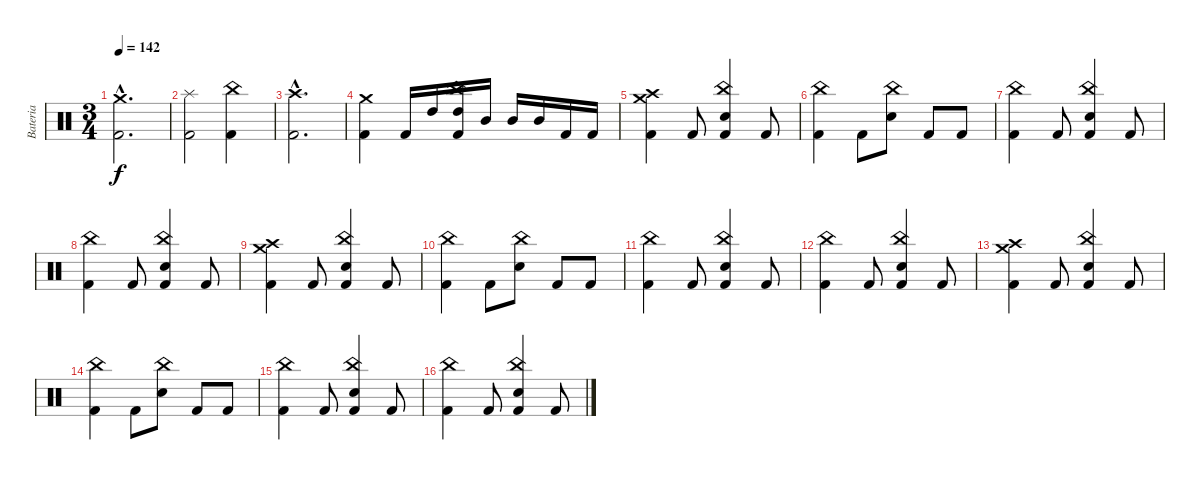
\track ("Bateria" "Bateria") {instrument percussion}
\staff {score}
\articulation defaults
\ts (3 4)
\tempo 142
\clef neutral
\ks c
("Crash medium (hit)"{hac} "Kick (hit) 2"{hac}).2{d dy f} |
("Splash (hit)" "Kick (hit) 2").2 ("China (hit)" "Kick (hit) 2").4 |
("Crash high (hit)"{hac} "Kick (hit) 2"{hac}).2{d} |
("Crash medium (hit)" "Kick (hit) 2").4 "Kick (hit) 2".16 "High Tom (hit)".16 ("China (hit)" "High Tom (hit)" "Kick (hit) 2").16 "Mid Tom (hit)".16 "Mid Tom (hit)".16 "Mid Tom (hit)".16 "Kick (hit) 2".16 "Kick (hit) 2".16 |
("Crash high (hit)" "Crash medium (hit)" "Kick (hit) 2").4 "Kick (hit) 2".8 ("China (hit)" "Snare (hit) 2" "Kick (hit) 2").4 "Kick (hit) 2".8 |
("China (hit)" "Kick (hit) 2").4 "Kick (hit) 2".8 ("China (hit)" "Snare (hit) 2").8 "Kick (hit) 2".8 "Kick (hit) 2".8 |
("China (hit)" "Kick (hit) 2").4 "Kick (hit) 2".8 ("China (hit)" "Snare (hit) 2" "Kick (hit) 2").4 "Kick (hit) 2".8 |
("China (hit)" "Kick (hit) 2").4 "Kick (hit) 2".8 ("China (hit)" "Snare (hit) 2" "Kick (hit) 2").4 "Kick (hit) 2".8 |
("Crash high (hit)" "Crash medium (hit)" "Kick (hit) 2").4 "Kick (hit) 2".8 ("China (hit)" "Snare (hit) 2" "Kick (hit) 2").4 "Kick (hit) 2".8 |
("China (hit)" "Kick (hit) 2").4 "Kick (hit) 2".8 ("China (hit)" "Snare (hit) 2").8 "Kick (hit) 2".8 "Kick (hit) 2".8 |
("China (hit)" "Kick (hit) 2").4 "Kick (hit) 2".8 ("China (hit)" "Snare (hit) 2" "Kick (hit) 2").4 "Kick (hit) 2".8 |
("China (hit)" "Kick (hit) 2").4 "Kick (hit) 2".8 ("China (hit)" "Snare (hit) 2" "Kick (hit) 2").4 "Kick (hit) 2".8 |
("Crash high (hit)" "Crash medium (hit)" "Kick (hit) 2").4 "Kick (hit) 2".8 ("China (hit)" "Snare (hit) 2" "Kick (hit) 2").4 "Kick (hit) 2".8 |
("China (hit)" "Kick (hit) 2").4 "Kick (hit) 2".8 ("China (hit)" "Snare (hit) 2").8 "Kick (hit) 2".8 "Kick (hit) 2".8 |
("China (hit)" "Kick (hit) 2").4 "Kick (hit) 2".8 ("China (hit)" "Snare (hit) 2" "Kick (hit) 2").4 "Kick (hit) 2".8 |
("China (hit)" "Kick (hit) 2").4 "Kick (hit) 2".8 ("China (hit)" "Snare (hit) 2" "Kick (hit) 2").4 "Kick (hit) 2".8
